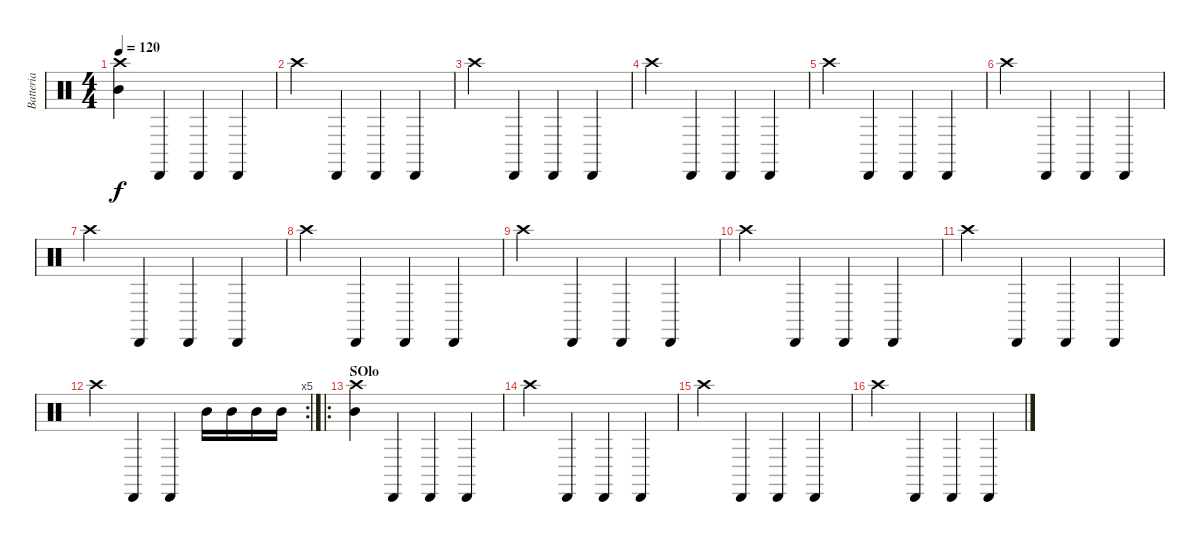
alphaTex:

\track ("Batteria" "Batteria") {instrument percussion}
\staff {score}
\articulation defaults
\ts (4 4)
\tempo 120
\clef neutral
\ks c
("Crash high (hit)" "Mid Tom (hit)").4{dy f} "Cabasa (hit)".4 "Cabasa (hit)".4 "Cabasa (hit)".4 |
"Crash high (hit)".4 "Cabasa (hit)".4 "Cabasa (hit)".4 "Cabasa (hit)".4 |
"Crash high (hit)".4 "Cabasa (hit)".4 "Cabasa (hit)".4 "Cabasa (hit)".4 |
"Crash high (hit)".4 "Cabasa (hit)".4 "Cabasa (hit)".4 "Cabasa (hit)".4 |
"Crash high (hit)".4 "Cabasa (hit)".4 "Cabasa (hit)".4 "Cabasa (hit)".4 |
"Crash high (hit)".4 "Cabasa (hit)".4 "Cabasa (hit)".4 "Cabasa (hit)".4 |
"Crash high (hit)".4 "Cabasa (hit)".4 "Cabasa (hit)".4 "Cabasa (hit)".4 |
"Crash high (hit)".4 "Cabasa (hit)".4 "Cabasa (hit)".4 "Cabasa (hit)".4 |
"Crash high (hit)".4 "Cabasa (hit)".4 "Cabasa (hit)".4 "Cabasa (hit)".4 |
"Crash high (hit)".4 "Cabasa (hit)".4 "Cabasa (hit)".4 "Cabasa (hit)".4 |
"Crash high (hit)".4 "Cabasa (hit)".4 "Cabasa (hit)".4 "Cabasa (hit)".4 |
\rc 5 "Crash high (hit)".4 "Cabasa (hit)".4 "Cabasa (hit)".4 "Mid Tom (hit)".16 "Mid Tom (hit)".16 "Mid Tom (hit)".16 "Mid Tom (hit)".16
|
\ro
\section ("" "SOlo")
("Crash high (hit)" "Mid Tom (hit)").4 "Cabasa (hit)".4 "Cabasa (hit)".4 "Cabasa (hit)".4 |
"Crash high (hit)".4 "Cabasa (hit)".4 "Cabasa (hit)".4 "Cabasa (hit)".4 |
"Crash high (hit)".4 "Cabasa (hit)".4 "Cabasa (hit)".4 "Cabasa (hit)".4 |
"Crash high (hit)".4 "Cabasa (hit)".4 "Cabasa (hit)".4 "Cabasa (hit)".4
